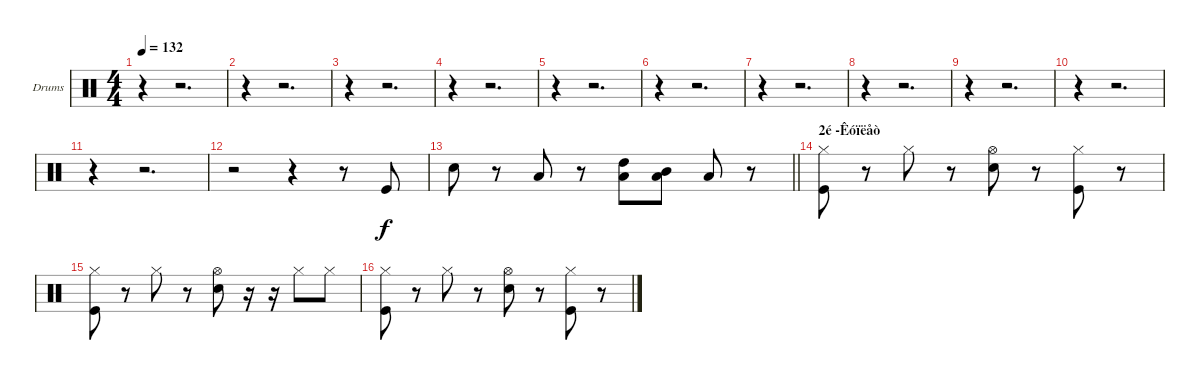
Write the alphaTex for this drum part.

\bracketExtendMode groupsimilarinstruments
\firstSystemTrackNameOrientation horizontal
\otherSystemsTrackNameOrientation horizontal
\track ("Drumkit" "Drums") {instrument percussion}
\staff {score}
\articulation defaults
\ts (4 4)
\tempo 132
\clef neutral
\ks c
r.4{dy f} r.2{d} |
r.4 r.2{d} |
r.4 r.2{d} |
r.4 r.2{d} |
r.4 r.2{d} |
r.4 r.2{d} |
r.4 r.2{d} |
r.4 r.2{d} |
r.4 r.2{d} |
r.4 r.2{d} |
r.4 r.2{d} |
r.2 r.4 r.8 "Kick (hit)".8 |
\barLineRight lightlight "Snare (hit) 2".8
r.8 "Low Tom (hit)".8 r.8 ("Low Tom (hit)" "High Tom (hit)").8 ("Low Tom (hit)" "Mid Tom (hit)").8 "Low Tom (hit)".8 r.8 |
\section ("" "2é -Êóïëåò")
("Kick (hit)" "Hi-Hat (closed)").8 r.8 "Hi-Hat (closed)".8 r.8 ("Snare (hit) 2" "Hi-Hat (open)").8 r.8 ("Kick (hit)" "Hi-Hat (closed)").8 r.8 |
("Kick (hit)" "Hi-Hat (closed)").8 r.8 "Hi-Hat (closed)".8 r.8 ("Snare (hit) 2" "Hi-Hat (open)").8 r.16 r.16 "Hi-Hat (closed)".8 "Hi-Hat (closed)".8 |
("Kick (hit)" "Hi-Hat (closed)").8 r.8 "Hi-Hat (closed)".8 r.8 ("Snare (hit) 2" "Hi-Hat (open)").8 r.8 ("Kick (hit)" "Hi-Hat (closed)").8 r.8
